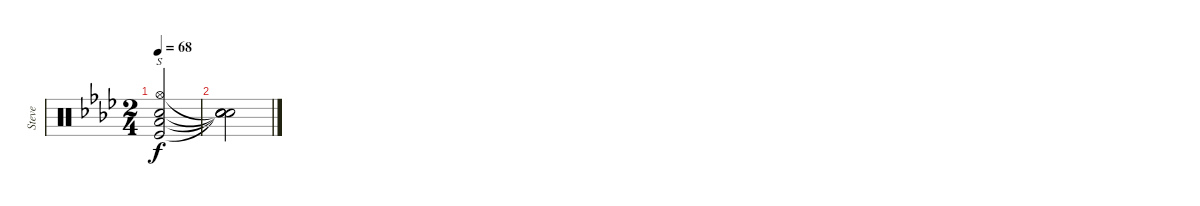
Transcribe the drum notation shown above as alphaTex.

\track ("Steve" "Steve") {instrument percussion}
\staff {score}
\articulation defaults
\ts (2 4)
\tempo 68
\clef neutral
\ks fminor
("Kick (hit)" "Low Floor Tom (hit)" "Hi-Hat (open)" "Electric Snare (hit)").2{s dy f} |
("Snare (hit)"{t} "Snare (hit)"{t} "Snare (hit)"{t} "Snare (hit)"{t}).2
